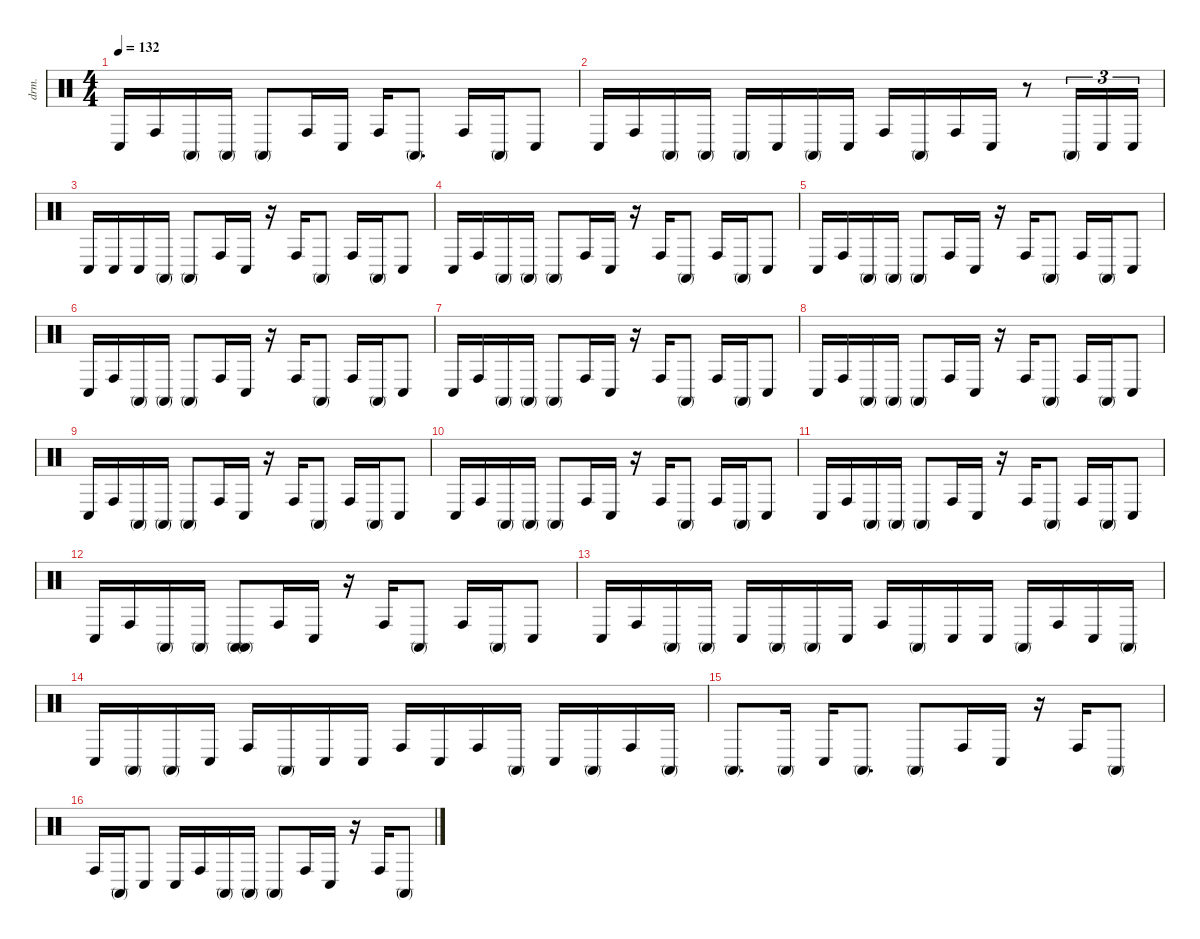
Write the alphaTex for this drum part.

\defaultSystemsLayout 4
\hideDynamics
\bracketExtendMode nobrackets
\track ("congas" "drm.") {instrument percussion}
\staff {score}
\articulation defaults
\ts (4 4)
\tempo 132
\clef neutral
\ks c "Conga low (hit)".16{dy f} "Conga high (hit)".16 "Conga high (mute)".16 "Conga high (mute)".16 "Conga high (mute)".8 "Conga high (hit)".16 "Conga low (hit)".16 "Conga high (hit)".16 "Conga high (mute)".8{d} "Conga high (hit)".16 "Conga high (mute)".16 "Conga low (hit)".8
|
"Conga low (hit)".16 "Conga high (hit)".16 "Conga high (mute)".16 "Conga high (mute)".16 "Conga high (mute)".16 "Conga low (hit)".16 "Conga high (mute)".16 "Conga low (hit)".16 "Conga high (hit)".16 "Conga high (mute)".16 "Conga high (hit)".16 "Conga low (hit)".16 r.8 "Conga high (mute)".16{tu (3 2)} "Conga low (hit)".16{tu (3 2)} "Conga low (hit)".16{tu (3 2)} |
"Conga low (hit)".16 "Conga low (hit)".16 "Conga low (hit)".16 "Conga high (mute)".16 "Conga high (mute)".8 "Conga high (hit)".16 "Conga low (hit)".16 r.16 "Conga high (hit)".16 "Conga high (mute)".8 "Conga high (hit)".16 "Conga high (mute)".16 "Conga low (hit)".8 |
"Conga low (hit)".16 "Conga high (hit)".16 "Conga high (mute)".16 "Conga high (mute)".16 "Conga high (mute)".8 "Conga high (hit)".16 "Conga low (hit)".16 r.16 "Conga high (hit)".16 "Conga high (mute)".8 "Conga high (hit)".16 "Conga high (mute)".16 "Conga low (hit)".8 |
"Conga low (hit)".16 "Conga high (hit)".16 "Conga high (mute)".16 "Conga high (mute)".16 "Conga high (mute)".8 "Conga high (hit)".16 "Conga low (hit)".16 r.16 "Conga high (hit)".16 "Conga high (mute)".8 "Conga high (hit)".16 "Conga high (mute)".16 "Conga low (hit)".8 |
"Conga low (hit)".16 "Conga high (hit)".16 "Conga high (mute)".16 "Conga high (mute)".16 "Conga high (mute)".8 "Conga high (hit)".16 "Conga low (hit)".16 r.16 "Conga high (hit)".16 "Conga high (mute)".8 "Conga high (hit)".16 "Conga high (mute)".16 "Conga low (hit)".8 |
"Conga low (hit)".16 "Conga high (hit)".16 "Conga high (mute)".16 "Conga high (mute)".16 "Conga high (mute)".8 "Conga high (hit)".16 "Conga low (hit)".16 r.16 "Conga high (hit)".16 "Conga high (mute)".8 "Conga high (hit)".16 "Conga high (mute)".16 "Conga low (hit)".8 |
"Conga low (hit)".16 "Conga high (hit)".16 "Conga high (mute)".16 "Conga high (mute)".16 "Conga high (mute)".8 "Conga high (hit)".16 "Conga low (hit)".16 r.16 "Conga high (hit)".16 "Conga high (mute)".8 "Conga high (hit)".16 "Conga high (mute)".16 "Conga low (hit)".8 |
"Conga low (hit)".16 "Conga high (hit)".16 "Conga high (mute)".16 "Conga high (mute)".16 "Conga high (mute)".8 "Conga high (hit)".16 "Conga low (hit)".16 r.16 "Conga high (hit)".16 "Conga high (mute)".8 "Conga high (hit)".16 "Conga high (mute)".16 "Conga low (hit)".8 |
"Conga low (hit)".16 "Conga high (hit)".16 "Conga high (mute)".16 "Conga high (mute)".16 "Conga high (mute)".8 "Conga high (hit)".16 "Conga low (hit)".16 r.16 "Conga high (hit)".16 "Conga high (mute)".8 "Conga high (hit)".16 "Conga high (mute)".16 "Conga low (hit)".8 |
"Conga low (hit)".16 "Conga high (hit)".16 "Conga high (mute)".16 "Conga high (mute)".16 "Conga high (mute)".8 "Conga high (hit)".16 "Conga low (hit)".16 r.16 "Conga high (hit)".16 "Conga high (mute)".8 "Conga high (hit)".16 "Conga high (mute)".16 "Conga low (hit)".8 |
"Conga low (hit)".16 "Conga high (hit)".16 "Conga high (mute)".16 "Conga high (mute)".16 ("Conga high (mute)" "Conga high (mute)").8 "Conga high (hit)".16 "Conga low (hit)".16 r.16 "Conga high (hit)".16 "Conga high (mute)".8 "Conga high (hit)".16 "Conga high (mute)".16 "Conga low (hit)".8 |
"Conga low (hit)".16 "Conga high (hit)".16 "Conga high (mute)".16 "Conga high (mute)".16 "Conga low (hit)".16 "Conga high (mute)".16 "Conga high (mute)".16 "Conga low (hit)".16 "Conga high (hit)".16 "Conga high (mute)".16 "Conga low (hit)".16 "Conga low (hit)".16 "Conga high (mute)".16 "Conga high (hit)".16 "Conga low (hit)".16 "Conga high (mute)".16 |
"Conga low (hit)".16 "Conga high (mute)".16 "Conga high (mute)".16 "Conga low (hit)".16 "Conga high (hit)".16 "Conga high (mute)".16 "Conga low (hit)".16 "Conga low (hit)".16 "Conga high (hit)".16 "Conga low (hit)".16 "Conga high (hit)".16 "Conga high (mute)".16 "Conga low (hit)".16 "Conga high (mute)".16 "Conga high (hit)".16 "Conga high (mute)".16 |
"Conga high (mute)".8{d} "Conga high (mute)".16 "Conga low (hit)".16 "Conga high (mute)".8{d} "Conga high (mute)".8 "Conga high (hit)".16 "Conga low (hit)".16 r.16 "Conga high (hit)".16 "Conga high (mute)".8 |
"Conga high (hit)".16 "Conga high (mute)".16 "Conga low (hit)".8 "Conga low (hit)".16 "Conga high (hit)".16 "Conga high (mute)".16 "Conga high (mute)".16 "Conga high (mute)".8 "Conga high (hit)".16 "Conga low (hit)".16 r.16 "Conga high (hit)".16 "Conga high (mute)".8
